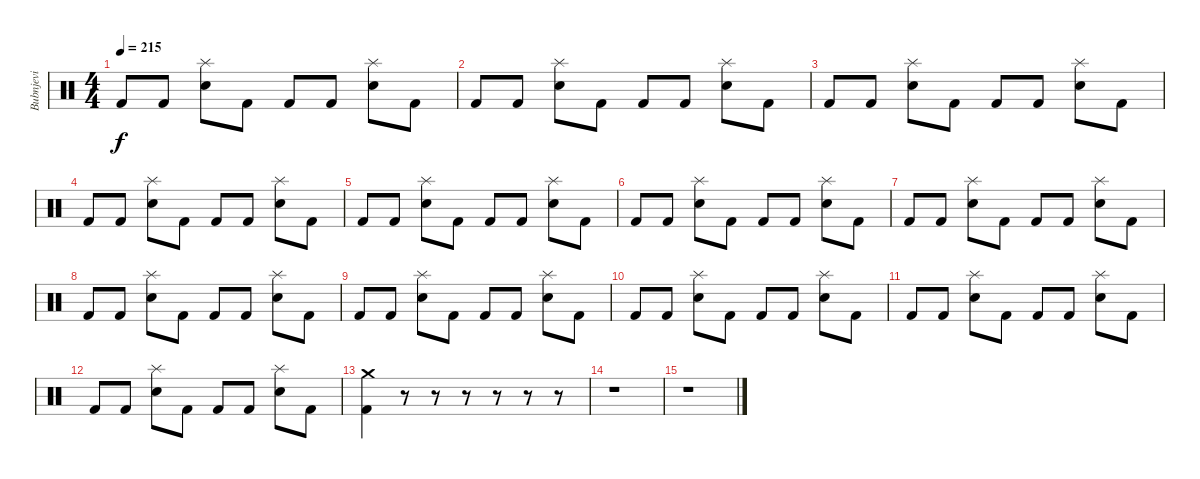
\track ("Bubnjevi" "Bubnjevi") {instrument percussion}
\staff {score}
\articulation defaults
\ts (4 4)
\tempo 215
\clef neutral
\ks c "Kick (hit) 2".8{dy f} "Kick (hit) 2".8
("Splash (hit)" "Electric Snare (hit)").8 "Kick (hit) 2".8 "Kick (hit) 2".8 "Kick (hit) 2".8 ("Splash (hit)" "Electric Snare (hit)").8 "Kick (hit) 2".8 |
"Kick (hit) 2".8 "Kick (hit) 2".8 ("Splash (hit)" "Electric Snare (hit)").8 "Kick (hit) 2".8 "Kick (hit) 2".8 "Kick (hit) 2".8 ("Splash (hit)" "Electric Snare (hit)").8 "Kick (hit) 2".8 |
"Kick (hit) 2".8 "Kick (hit) 2".8 ("Splash (hit)" "Electric Snare (hit)").8 "Kick (hit) 2".8 "Kick (hit) 2".8 "Kick (hit) 2".8 ("Splash (hit)" "Electric Snare (hit)").8 "Kick (hit) 2".8 |
"Kick (hit) 2".8 "Kick (hit) 2".8 ("Splash (hit)" "Electric Snare (hit)").8 "Kick (hit) 2".8 "Kick (hit) 2".8 "Kick (hit) 2".8 ("Splash (hit)" "Electric Snare (hit)").8 "Kick (hit) 2".8 |
"Kick (hit) 2".8 "Kick (hit) 2".8 ("Splash (hit)" "Electric Snare (hit)").8 "Kick (hit) 2".8 "Kick (hit) 2".8 "Kick (hit) 2".8 ("Splash (hit)" "Electric Snare (hit)").8 "Kick (hit) 2".8 |
"Kick (hit) 2".8 "Kick (hit) 2".8 ("Splash (hit)" "Electric Snare (hit)").8 "Kick (hit) 2".8 "Kick (hit) 2".8 "Kick (hit) 2".8 ("Splash (hit)" "Electric Snare (hit)").8 "Kick (hit) 2".8 |
"Kick (hit) 2".8 "Kick (hit) 2".8 ("Splash (hit)" "Electric Snare (hit)").8 "Kick (hit) 2".8 "Kick (hit) 2".8 "Kick (hit) 2".8 ("Splash (hit)" "Electric Snare (hit)").8 "Kick (hit) 2".8 |
"Kick (hit) 2".8 "Kick (hit) 2".8 ("Splash (hit)" "Electric Snare (hit)").8 "Kick (hit) 2".8 "Kick (hit) 2".8 "Kick (hit) 2".8 ("Splash (hit)" "Electric Snare (hit)").8 "Kick (hit) 2".8 |
"Kick (hit) 2".8 "Kick (hit) 2".8 ("Splash (hit)" "Electric Snare (hit)").8 "Kick (hit) 2".8 "Kick (hit) 2".8 "Kick (hit) 2".8 ("Splash (hit)" "Electric Snare (hit)").8 "Kick (hit) 2".8 |
"Kick (hit) 2".8 "Kick (hit) 2".8 ("Splash (hit)" "Electric Snare (hit)").8 "Kick (hit) 2".8 "Kick (hit) 2".8 "Kick (hit) 2".8 ("Splash (hit)" "Electric Snare (hit)").8 "Kick (hit) 2".8 |
"Kick (hit) 2".8 "Kick (hit) 2".8 ("Splash (hit)" "Electric Snare (hit)").8 "Kick (hit) 2".8 "Kick (hit) 2".8 "Kick (hit) 2".8 ("Splash (hit)" "Electric Snare (hit)").8 "Kick (hit) 2".8 |
"Kick (hit) 2".8 "Kick (hit) 2".8 ("Splash (hit)" "Electric Snare (hit)").8 "Kick (hit) 2".8 "Kick (hit) 2".8 "Kick (hit) 2".8 ("Splash (hit)" "Electric Snare (hit)").8 "Kick (hit) 2".8 |
("Crash medium (hit)" "Kick (hit) 2").4 r.8 r.8 r.8 r.8 r.8 r.8 |
r.1 |
r.1
